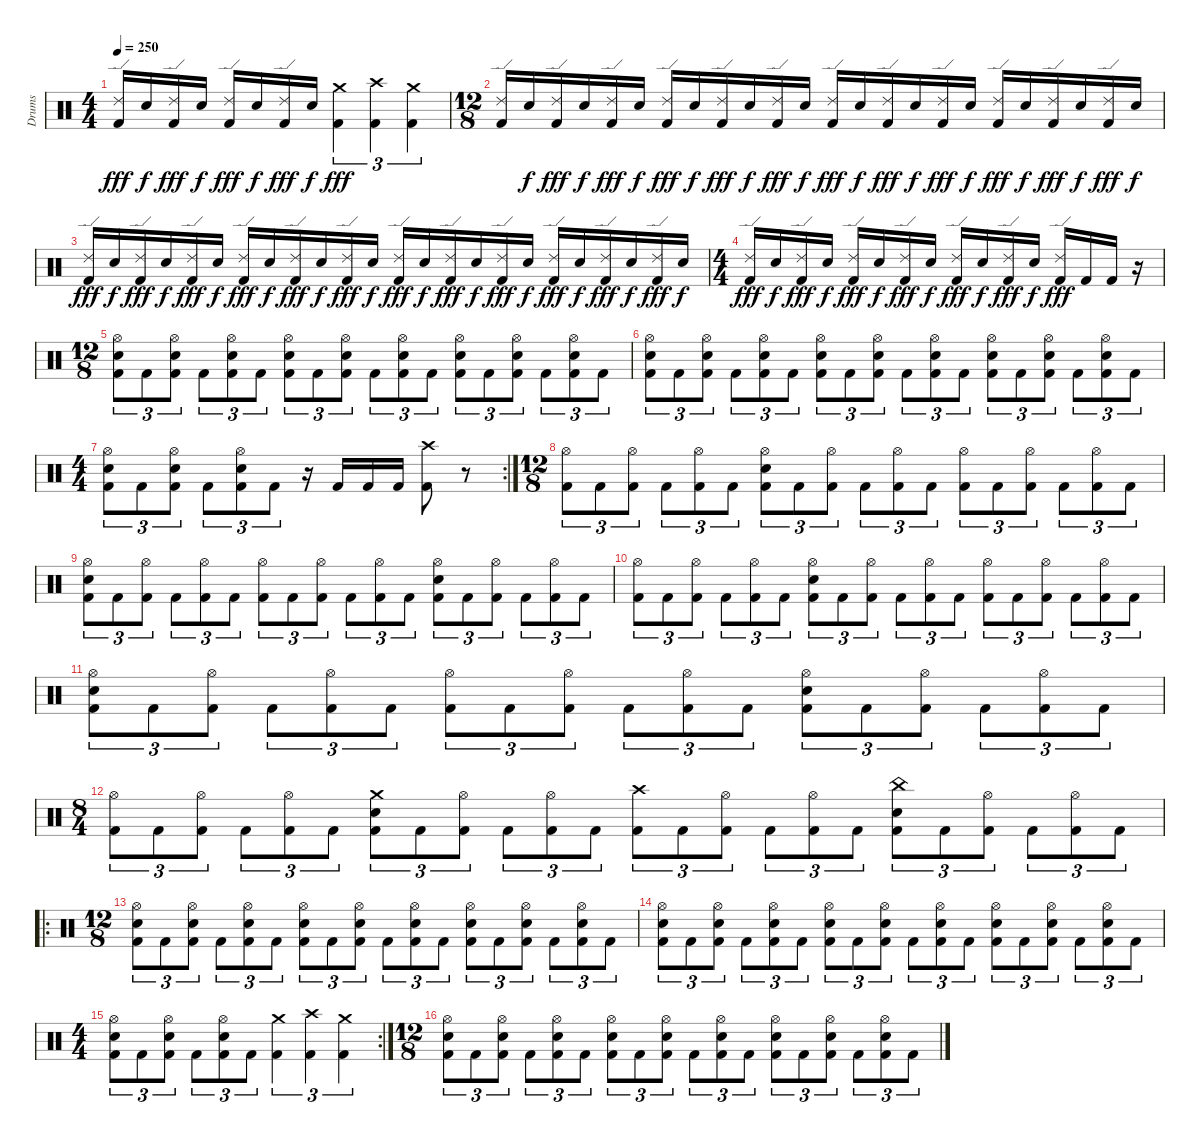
\track ("Drums" "Drums") {instrument percussion}
\staff {score}
\articulation defaults
\ts (4 4)
\tempo 250
\clef neutral
\ks c
("Ride (edge) 2" "Kick (hit) 2").16{dy fff} "Electric Snare (hit)".16{dy f} ("Ride (edge) 2" "Kick (hit) 2").16{dy fff} "Electric Snare (hit)".16{dy f} ("Ride (edge) 2" "Kick (hit) 2").16{dy fff} "Electric Snare (hit)".16{dy f} ("Ride (edge) 2" "Kick (hit) 2").16{dy fff} "Electric Snare (hit)".16{dy f} ("Crash medium (hit)" "Kick (hit) 2").4{tu (3 2) dy fff} ("Crash high (hit)" "Kick (hit) 2").4{tu (3 2)} ("Crash medium (hit)" "Kick (hit) 2").4{tu (3 2)} |
\ts (12 8)
("Ride (edge) 2" "Kick (hit) 2").16 "Electric Snare (hit)".16{dy f} ("Ride (edge) 2" "Kick (hit) 2").16{dy fff} "Electric Snare (hit)".16{dy f} ("Ride (edge) 2" "Kick (hit) 2").16{dy fff} "Electric Snare (hit)".16{dy f} ("Ride (edge) 2" "Kick (hit) 2").16{dy fff} "Electric Snare (hit)".16{dy f} ("Ride (edge) 2" "Kick (hit) 2").16{dy fff} "Electric Snare (hit)".16{dy f} ("Ride (edge) 2" "Kick (hit) 2").16{dy fff} "Electric Snare (hit)".16{dy f} ("Ride (edge) 2" "Kick (hit) 2").16{dy fff} "Electric Snare (hit)".16{dy f} ("Ride (edge) 2" "Kick (hit) 2").16{dy fff} "Electric Snare (hit)".16{dy f} ("Ride (edge) 2" "Kick (hit) 2").16{dy fff} "Electric Snare (hit)".16{dy f} ("Ride (edge) 2" "Kick (hit) 2").16{dy fff} "Electric Snare (hit)".16{dy f} ("Ride (edge) 2" "Kick (hit) 2").16{dy fff} "Electric Snare (hit)".16{dy f} ("Ride (edge) 2" "Kick (hit) 2").16{dy fff} "Electric Snare (hit)".16{dy f} |
("Ride (edge) 2" "Kick (hit) 2").16{dy fff} "Electric Snare (hit)".16{dy f} ("Ride (edge) 2" "Kick (hit) 2").16{dy fff} "Electric Snare (hit)".16{dy f} ("Ride (edge) 2" "Kick (hit) 2").16{dy fff} "Electric Snare (hit)".16{dy f} ("Ride (edge) 2" "Kick (hit) 2").16{dy fff} "Electric Snare (hit)".16{dy f} ("Ride (edge) 2" "Kick (hit) 2").16{dy fff} "Electric Snare (hit)".16{dy f} ("Ride (edge) 2" "Kick (hit) 2").16{dy fff} "Electric Snare (hit)".16{dy f} ("Ride (edge) 2" "Kick (hit) 2").16{dy fff} "Electric Snare (hit)".16{dy f} ("Ride (edge) 2" "Kick (hit) 2").16{dy fff} "Electric Snare (hit)".16{dy f} ("Ride (edge) 2" "Kick (hit) 2").16{dy fff} "Electric Snare (hit)".16{dy f} ("Ride (edge) 2" "Kick (hit) 2").16{dy fff} "Electric Snare (hit)".16{dy f} ("Ride (edge) 2" "Kick (hit) 2").16{dy fff} "Electric Snare (hit)".16{dy f} ("Ride (edge) 2" "Kick (hit) 2").16{dy fff} "Electric Snare (hit)".16{dy f} |
\ts (4 4)
("Ride (edge) 2" "Kick (hit) 2").16{dy fff} "Electric Snare (hit)".16{dy f} ("Ride (edge) 2" "Kick (hit) 2").16{dy fff} "Electric Snare (hit)".16{dy f} ("Ride (edge) 2" "Kick (hit) 2").16{dy fff} "Electric Snare (hit)".16{dy f} ("Ride (edge) 2" "Kick (hit) 2").16{dy fff} "Electric Snare (hit)".16{dy f} ("Ride (edge) 2" "Kick (hit) 2").16{dy fff} "Electric Snare (hit)".16{dy f} ("Ride (edge) 2" "Kick (hit) 2").16{dy fff} "Electric Snare (hit)".16{dy f} ("Ride (edge) 2" "Kick (hit) 2").16{dy fff} "Kick (hit) 2".16 "Kick (hit) 2".16 r.16 |
\ts (12 8)
("Hi-Hat (open)" "Electric Snare (hit)" "Kick (hit) 2").8{tu (3 2)} "Kick (hit) 2".8{tu (3 2)} ("Hi-Hat (open)" "Electric Snare (hit)" "Kick (hit) 2").8{tu (3 2)} "Kick (hit) 2".8{tu (3 2)} ("Hi-Hat (open)" "Electric Snare (hit)" "Kick (hit) 2").8{tu (3 2)} "Kick (hit) 2".8{tu (3 2)} ("Hi-Hat (open)" "Electric Snare (hit)" "Kick (hit) 2").8{tu (3 2)} "Kick (hit) 2".8{tu (3 2)} ("Hi-Hat (open)" "Electric Snare (hit)" "Kick (hit) 2").8{tu (3 2)} "Kick (hit) 2".8{tu (3 2)} ("Hi-Hat (open)" "Electric Snare (hit)" "Kick (hit) 2").8{tu (3 2)} "Kick (hit) 2".8{tu (3 2)} ("Hi-Hat (open)" "Electric Snare (hit)" "Kick (hit) 2").8{tu (3 2)} "Kick (hit) 2".8{tu (3 2)} ("Hi-Hat (open)" "Electric Snare (hit)" "Kick (hit) 2").8{tu (3 2)} "Kick (hit) 2".8{tu (3 2)} ("Hi-Hat (open)" "Electric Snare (hit)" "Kick (hit) 2").8{tu (3 2)} "Kick (hit) 2".8{tu (3 2)} |
("Hi-Hat (open)" "Electric Snare (hit)" "Kick (hit) 2").8{tu (3 2)} "Kick (hit) 2".8{tu (3 2)} ("Hi-Hat (open)" "Electric Snare (hit)" "Kick (hit) 2").8{tu (3 2)} "Kick (hit) 2".8{tu (3 2)} ("Hi-Hat (open)" "Electric Snare (hit)" "Kick (hit) 2").8{tu (3 2)} "Kick (hit) 2".8{tu (3 2)} ("Hi-Hat (open)" "Electric Snare (hit)" "Kick (hit) 2").8{tu (3 2)} "Kick (hit) 2".8{tu (3 2)} ("Hi-Hat (open)" "Electric Snare (hit)" "Kick (hit) 2").8{tu (3 2)} "Kick (hit) 2".8{tu (3 2)} ("Hi-Hat (open)" "Electric Snare (hit)" "Kick (hit) 2").8{tu (3 2)} "Kick (hit) 2".8{tu (3 2)} ("Hi-Hat (open)" "Electric Snare (hit)" "Kick (hit) 2").8{tu (3 2)} "Kick (hit) 2".8{tu (3 2)} ("Hi-Hat (open)" "Electric Snare (hit)" "Kick (hit) 2").8{tu (3 2)} "Kick (hit) 2".8{tu (3 2)} ("Hi-Hat (open)" "Electric Snare (hit)" "Kick (hit) 2").8{tu (3 2)} "Kick (hit) 2".8{tu (3 2)} |
\rc 2
\ts (4 4)
("Hi-Hat (open)" "Electric Snare (hit)" "Kick (hit) 2").8{tu (3 2)} "Kick (hit) 2".8{tu (3 2)} ("Hi-Hat (open)" "Electric Snare (hit)" "Kick (hit) 2").8{tu (3 2)} "Kick (hit) 2".8{tu (3 2)} ("Hi-Hat (open)" "Electric Snare (hit)" "Kick (hit) 2").8{tu (3 2)} "Kick (hit) 2".8{tu (3 2)} r.16 "Kick (hit) 2".16 "Kick (hit) 2".16 "Kick (hit) 2".16 ("Crash high (hit)" "Kick (hit) 2").8 r.8 |
\ts (12 8)
("Hi-Hat (open)" "Kick (hit) 2").8{tu (3 2)} "Kick (hit) 2".8{tu (3 2)} ("Hi-Hat (open)" "Kick (hit) 2").8{tu (3 2)} "Kick (hit) 2".8{tu (3 2)} ("Hi-Hat (open)" "Kick (hit) 2").8{tu (3 2)} "Kick (hit) 2".8{tu (3 2)} ("Hi-Hat (open)" "Electric Snare (hit)" "Kick (hit) 2").8{tu (3 2)} "Kick (hit) 2".8{tu (3 2)} ("Hi-Hat (open)" "Kick (hit) 2").8{tu (3 2)} "Kick (hit) 2".8{tu (3 2)} ("Hi-Hat (open)" "Kick (hit) 2").8{tu (3 2)} "Kick (hit) 2".8{tu (3 2)} ("Hi-Hat (open)" "Kick (hit) 2").8{tu (3 2)} "Kick (hit) 2".8{tu (3 2)} ("Hi-Hat (open)" "Kick (hit) 2").8{tu (3 2)} "Kick (hit) 2".8{tu (3 2)} ("Hi-Hat (open)" "Kick (hit) 2").8{tu (3 2)} "Kick (hit) 2".8{tu (3 2)} |
("Hi-Hat (open)" "Electric Snare (hit)" "Kick (hit) 2").8{tu (3 2)} "Kick (hit) 2".8{tu (3 2)} ("Hi-Hat (open)" "Kick (hit) 2").8{tu (3 2)} "Kick (hit) 2".8{tu (3 2)} ("Hi-Hat (open)" "Kick (hit) 2").8{tu (3 2)} "Kick (hit) 2".8{tu (3 2)} ("Hi-Hat (open)" "Kick (hit) 2").8{tu (3 2)} "Kick (hit) 2".8{tu (3 2)} ("Hi-Hat (open)" "Kick (hit) 2").8{tu (3 2)} "Kick (hit) 2".8{tu (3 2)} ("Hi-Hat (open)" "Kick (hit) 2").8{tu (3 2)} "Kick (hit) 2".8{tu (3 2)} ("Hi-Hat (open)" "Electric Snare (hit)" "Kick (hit) 2").8{tu (3 2)} "Kick (hit) 2".8{tu (3 2)} ("Hi-Hat (open)" "Kick (hit) 2").8{tu (3 2)} "Kick (hit) 2".8{tu (3 2)} ("Hi-Hat (open)" "Kick (hit) 2").8{tu (3 2)} "Kick (hit) 2".8{tu (3 2)} |
("Hi-Hat (open)" "Kick (hit) 2").8{tu (3 2)} "Kick (hit) 2".8{tu (3 2)} ("Hi-Hat (open)" "Kick (hit) 2").8{tu (3 2)} "Kick (hit) 2".8{tu (3 2)} ("Hi-Hat (open)" "Kick (hit) 2").8{tu (3 2)} "Kick (hit) 2".8{tu (3 2)} ("Hi-Hat (open)" "Electric Snare (hit)" "Kick (hit) 2").8{tu (3 2)} "Kick (hit) 2".8{tu (3 2)} ("Hi-Hat (open)" "Kick (hit) 2").8{tu (3 2)} "Kick (hit) 2".8{tu (3 2)} ("Hi-Hat (open)" "Kick (hit) 2").8{tu (3 2)} "Kick (hit) 2".8{tu (3 2)} ("Hi-Hat (open)" "Kick (hit) 2").8{tu (3 2)} "Kick (hit) 2".8{tu (3 2)} ("Hi-Hat (open)" "Kick (hit) 2").8{tu (3 2)} "Kick (hit) 2".8{tu (3 2)} ("Hi-Hat (open)" "Kick (hit) 2").8{tu (3 2)} "Kick (hit) 2".8{tu (3 2)} |
("Hi-Hat (open)" "Electric Snare (hit)" "Kick (hit) 2").8{tu (3 2)} "Kick (hit) 2".8{tu (3 2)} ("Hi-Hat (open)" "Kick (hit) 2").8{tu (3 2)} "Kick (hit) 2".8{tu (3 2)} ("Hi-Hat (open)" "Kick (hit) 2").8{tu (3 2)} "Kick (hit) 2".8{tu (3 2)} ("Hi-Hat (open)" "Kick (hit) 2").8{tu (3 2)} "Kick (hit) 2".8{tu (3 2)} ("Hi-Hat (open)" "Kick (hit) 2").8{tu (3 2)} "Kick (hit) 2".8{tu (3 2)} ("Hi-Hat (open)" "Kick (hit) 2").8{tu (3 2)} "Kick (hit) 2".8{tu (3 2)} ("Hi-Hat (open)" "Electric Snare (hit)" "Kick (hit) 2").8{tu (3 2)} "Kick (hit) 2".8{tu (3 2)} ("Hi-Hat (open)" "Kick (hit) 2").8{tu (3 2)} "Kick (hit) 2".8{tu (3 2)} ("Hi-Hat (open)" "Kick (hit) 2").8{tu (3 2)} "Kick (hit) 2".8{tu (3 2)} |
\ts (8 4)
("Hi-Hat (open)" "Kick (hit) 2").8{tu (3 2)} "Kick (hit) 2".8{tu (3 2)} ("Hi-Hat (open)" "Kick (hit) 2").8{tu (3 2)} "Kick (hit) 2".8{tu (3 2)} ("Hi-Hat (open)" "Kick (hit) 2").8{tu (3 2)} "Kick (hit) 2".8{tu (3 2)} ("Crash medium (hit)" "Electric Snare (hit)" "Kick (hit) 2").8{tu (3 2)} "Kick (hit) 2".8{tu (3 2)} ("Hi-Hat (open)" "Kick (hit) 2").8{tu (3 2)} "Kick (hit) 2".8{tu (3 2)} ("Hi-Hat (open)" "Kick (hit) 2").8{tu (3 2)} "Kick (hit) 2".8{tu (3 2)} ("Crash high (hit)" "Kick (hit) 2").8{tu (3 2)} "Kick (hit) 2".8{tu (3 2)} ("Hi-Hat (open)" "Kick (hit) 2").8{tu (3 2)} "Kick (hit) 2".8{tu (3 2)} ("Hi-Hat (open)" "Kick (hit) 2").8{tu (3 2)} "Kick (hit) 2".8{tu (3 2)} ("China (hit)" "Electric Snare (hit)" "Kick (hit) 2").8{tu (3 2)} "Kick (hit) 2".8{tu (3 2)} ("Hi-Hat (open)" "Kick (hit) 2").8{tu (3 2)} "Kick (hit) 2".8{tu (3 2)} ("Hi-Hat (open)" "Kick (hit) 2").8{tu (3 2)} "Kick (hit) 2".8{tu (3 2)} |
\ro
\ts (12 8)
("Hi-Hat (open)" "Electric Snare (hit)" "Kick (hit) 2").8{tu (3 2)} "Kick (hit) 2".8{tu (3 2)} ("Hi-Hat (open)" "Electric Snare (hit)" "Kick (hit) 2").8{tu (3 2)} "Kick (hit) 2".8{tu (3 2)} ("Hi-Hat (open)" "Electric Snare (hit)" "Kick (hit) 2").8{tu (3 2)} "Kick (hit) 2".8{tu (3 2)} ("Hi-Hat (open)" "Electric Snare (hit)" "Kick (hit) 2").8{tu (3 2)} "Kick (hit) 2".8{tu (3 2)} ("Hi-Hat (open)" "Electric Snare (hit)" "Kick (hit) 2").8{tu (3 2)} "Kick (hit) 2".8{tu (3 2)} ("Hi-Hat (open)" "Electric Snare (hit)" "Kick (hit) 2").8{tu (3 2)} "Kick (hit) 2".8{tu (3 2)} ("Hi-Hat (open)" "Electric Snare (hit)" "Kick (hit) 2").8{tu (3 2)} "Kick (hit) 2".8{tu (3 2)} ("Hi-Hat (open)" "Electric Snare (hit)" "Kick (hit) 2").8{tu (3 2)} "Kick (hit) 2".8{tu (3 2)} ("Hi-Hat (open)" "Electric Snare (hit)" "Kick (hit) 2").8{tu (3 2)} "Kick (hit) 2".8{tu (3 2)} |
("Hi-Hat (open)" "Electric Snare (hit)" "Kick (hit) 2").8{tu (3 2)} "Kick (hit) 2".8{tu (3 2)} ("Hi-Hat (open)" "Electric Snare (hit)" "Kick (hit) 2").8{tu (3 2)} "Kick (hit) 2".8{tu (3 2)} ("Hi-Hat (open)" "Electric Snare (hit)" "Kick (hit) 2").8{tu (3 2)} "Kick (hit) 2".8{tu (3 2)} ("Hi-Hat (open)" "Electric Snare (hit)" "Kick (hit) 2").8{tu (3 2)} "Kick (hit) 2".8{tu (3 2)} ("Hi-Hat (open)" "Electric Snare (hit)" "Kick (hit) 2").8{tu (3 2)} "Kick (hit) 2".8{tu (3 2)} ("Hi-Hat (open)" "Electric Snare (hit)" "Kick (hit) 2").8{tu (3 2)} "Kick (hit) 2".8{tu (3 2)} ("Hi-Hat (open)" "Electric Snare (hit)" "Kick (hit) 2").8{tu (3 2)} "Kick (hit) 2".8{tu (3 2)} ("Hi-Hat (open)" "Electric Snare (hit)" "Kick (hit) 2").8{tu (3 2)} "Kick (hit) 2".8{tu (3 2)} ("Hi-Hat (open)" "Electric Snare (hit)" "Kick (hit) 2").8{tu (3 2)} "Kick (hit) 2".8{tu (3 2)} |
\rc 2
\ts (4 4)
("Hi-Hat (open)" "Electric Snare (hit)" "Kick (hit) 2").8{tu (3 2)} "Kick (hit) 2".8{tu (3 2)} ("Hi-Hat (open)" "Electric Snare (hit)" "Kick (hit) 2").8{tu (3 2)} "Kick (hit) 2".8{tu (3 2)} ("Hi-Hat (open)" "Electric Snare (hit)" "Kick (hit) 2").8{tu (3 2)} "Kick (hit) 2".8{tu (3 2)} ("Crash medium (hit)" "Kick (hit) 2").4{tu (3 2)} ("Crash high (hit)" "Kick (hit) 2").4{tu (3 2)} ("Crash medium (hit)" "Kick (hit) 2").4{tu (3 2)} |
\ts (12 8)
("Hi-Hat (open)" "Electric Snare (hit)" "Kick (hit) 2").8{tu (3 2)} "Kick (hit) 2".8{tu (3 2)} ("Hi-Hat (open)" "Electric Snare (hit)" "Kick (hit) 2").8{tu (3 2)} "Kick (hit) 2".8{tu (3 2)} ("Hi-Hat (open)" "Electric Snare (hit)" "Kick (hit) 2").8{tu (3 2)} "Kick (hit) 2".8{tu (3 2)} ("Hi-Hat (open)" "Electric Snare (hit)" "Kick (hit) 2").8{tu (3 2)} "Kick (hit) 2".8{tu (3 2)} ("Hi-Hat (open)" "Electric Snare (hit)" "Kick (hit) 2").8{tu (3 2)} "Kick (hit) 2".8{tu (3 2)} ("Hi-Hat (open)" "Electric Snare (hit)" "Kick (hit) 2").8{tu (3 2)} "Kick (hit) 2".8{tu (3 2)} ("Hi-Hat (open)" "Electric Snare (hit)" "Kick (hit) 2").8{tu (3 2)} "Kick (hit) 2".8{tu (3 2)} ("Hi-Hat (open)" "Electric Snare (hit)" "Kick (hit) 2").8{tu (3 2)} "Kick (hit) 2".8{tu (3 2)} ("Hi-Hat (open)" "Electric Snare (hit)" "Kick (hit) 2").8{tu (3 2)} "Kick (hit) 2".8{tu (3 2)}
